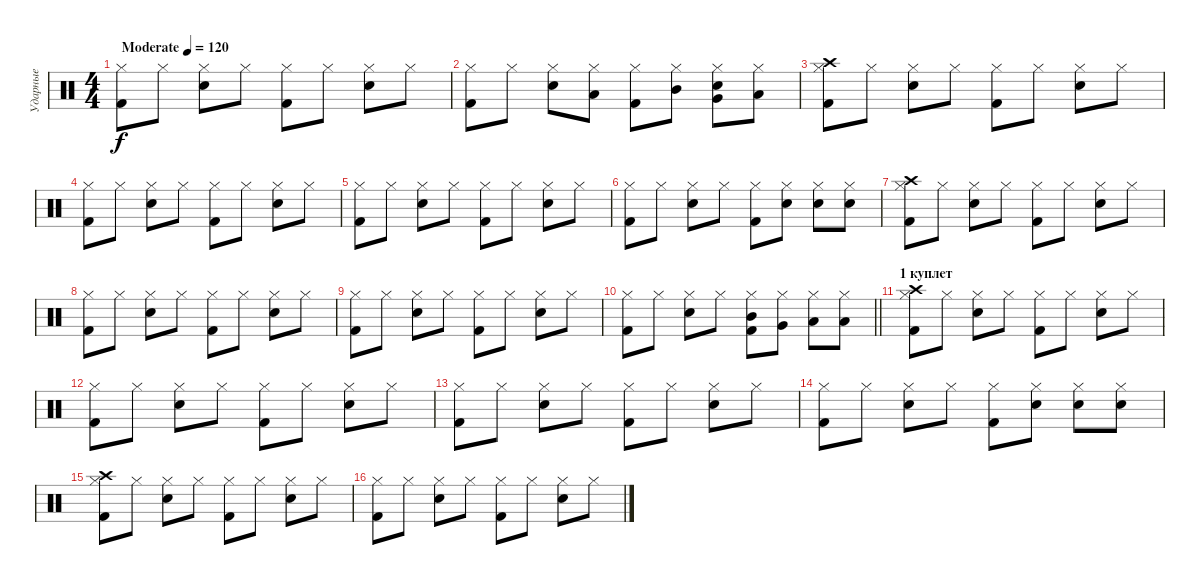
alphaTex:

\track ("Ударные" "Ударные") {instrument percussion}
\staff {score}
\articulation defaults
\ts (4 4)
\tempo (120 "Moderate")
\clef neutral
\ks c
("Hi-Hat (closed)" "Kick (hit) 2").8{dy f} "Hi-Hat (closed)".8 ("Hi-Hat (closed)" "Snare (hit) 2").8 "Hi-Hat (closed)".8 ("Hi-Hat (closed)" "Kick (hit) 2").8 "Hi-Hat (closed)".8 ("Hi-Hat (closed)" "Snare (hit) 2").8 "Hi-Hat (closed)".8 |
("Hi-Hat (closed)" "Kick (hit) 2").8 "Hi-Hat (closed)".8 ("Hi-Hat (closed)" "Snare (hit) 2").8 ("Hi-Hat (closed)" "Low Tom (hit)").8 ("Hi-Hat (closed)" "Kick (hit) 2").8 ("Hi-Hat (closed)" "Mid Tom (hit)").8 ("Hi-Hat (closed)" "Snare (hit) 2" "Very Low Tom (hit)").8 ("Hi-Hat (closed)" "Low Floor Tom (hit)").8 |
("Hi-Hat (closed)" "Kick (hit) 2" "Crash high (hit)").8 "Hi-Hat (closed)".8 ("Hi-Hat (closed)" "Snare (hit) 2").8 "Hi-Hat (closed)".8 ("Hi-Hat (closed)" "Kick (hit) 2").8 "Hi-Hat (closed)".8 ("Hi-Hat (closed)" "Snare (hit) 2").8 "Hi-Hat (closed)".8 |
("Hi-Hat (closed)" "Kick (hit) 2").8 "Hi-Hat (closed)".8 ("Hi-Hat (closed)" "Snare (hit) 2").8 "Hi-Hat (closed)".8 ("Hi-Hat (closed)" "Kick (hit) 2").8 "Hi-Hat (closed)".8 ("Hi-Hat (closed)" "Snare (hit) 2").8 "Hi-Hat (closed)".8 |
("Hi-Hat (closed)" "Kick (hit) 2").8 "Hi-Hat (closed)".8 ("Hi-Hat (closed)" "Snare (hit) 2").8 "Hi-Hat (closed)".8 ("Hi-Hat (closed)" "Kick (hit) 2").8 "Hi-Hat (closed)".8 ("Hi-Hat (closed)" "Snare (hit) 2").8 "Hi-Hat (closed)".8 |
("Hi-Hat (closed)" "Kick (hit) 2").8 "Hi-Hat (closed)".8 ("Hi-Hat (closed)" "Snare (hit) 2").8 "Hi-Hat (closed)".8 ("Hi-Hat (closed)" "Kick (hit) 2").8 ("Hi-Hat (closed)" "Snare (hit) 2").8 ("Hi-Hat (closed)" "Snare (hit) 2").8 ("Hi-Hat (closed)" "Snare (hit) 2").8 |
("Hi-Hat (closed)" "Kick (hit) 2" "Crash high (hit)").8 "Hi-Hat (closed)".8 ("Hi-Hat (closed)" "Snare (hit) 2").8 "Hi-Hat (closed)".8 ("Hi-Hat (closed)" "Kick (hit) 2").8 "Hi-Hat (closed)".8 ("Hi-Hat (closed)" "Snare (hit) 2").8 "Hi-Hat (closed)".8 |
("Hi-Hat (closed)" "Kick (hit) 2").8 "Hi-Hat (closed)".8 ("Hi-Hat (closed)" "Snare (hit) 2").8 "Hi-Hat (closed)".8 ("Hi-Hat (closed)" "Kick (hit) 2").8 "Hi-Hat (closed)".8 ("Hi-Hat (closed)" "Snare (hit) 2").8 "Hi-Hat (closed)".8 |
("Hi-Hat (closed)" "Kick (hit) 2").8 "Hi-Hat (closed)".8 ("Hi-Hat (closed)" "Snare (hit) 2").8 "Hi-Hat (closed)".8 ("Hi-Hat (closed)" "Kick (hit) 2").8 "Hi-Hat (closed)".8 ("Hi-Hat (closed)" "Snare (hit) 2").8 "Hi-Hat (closed)".8 |
\barLineRight lightlight
("Hi-Hat (closed)" "Kick (hit) 2").8 "Hi-Hat (closed)".8 ("Hi-Hat (closed)" "Snare (hit) 2").8 "Hi-Hat (closed)".8 ("Hi-Hat (closed)" "Kick (hit) 2" "Mid Tom (hit)").8 ("Hi-Hat (closed)" "Very Low Tom (hit)").8 ("Hi-Hat (closed)" "Low Floor Tom (hit)").8 ("Hi-Hat (closed)" "Low Tom (hit)").8 |
\section ("" "1 куплет")
("Hi-Hat (closed)" "Kick (hit) 2" "Crash high (hit)").8 "Hi-Hat (closed)".8 ("Hi-Hat (closed)" "Snare (hit) 2").8 "Hi-Hat (closed)".8 ("Hi-Hat (closed)" "Kick (hit) 2").8 "Hi-Hat (closed)".8 ("Hi-Hat (closed)" "Snare (hit) 2").8 "Hi-Hat (closed)".8 |
("Hi-Hat (closed)" "Kick (hit) 2").8 "Hi-Hat (closed)".8 ("Hi-Hat (closed)" "Snare (hit) 2").8 "Hi-Hat (closed)".8 ("Hi-Hat (closed)" "Kick (hit) 2").8 "Hi-Hat (closed)".8 ("Hi-Hat (closed)" "Snare (hit) 2").8 "Hi-Hat (closed)".8 |
("Hi-Hat (closed)" "Kick (hit) 2").8 "Hi-Hat (closed)".8 ("Hi-Hat (closed)" "Snare (hit) 2").8 "Hi-Hat (closed)".8 ("Hi-Hat (closed)" "Kick (hit) 2").8 "Hi-Hat (closed)".8 ("Hi-Hat (closed)" "Snare (hit) 2").8 "Hi-Hat (closed)".8 |
("Hi-Hat (closed)" "Kick (hit) 2").8 "Hi-Hat (closed)".8 ("Hi-Hat (closed)" "Snare (hit) 2").8 "Hi-Hat (closed)".8 ("Hi-Hat (closed)" "Kick (hit) 2").8 ("Hi-Hat (closed)" "Snare (hit) 2").8 ("Hi-Hat (closed)" "Snare (hit) 2").8 ("Hi-Hat (closed)" "Snare (hit) 2").8 |
("Hi-Hat (closed)" "Kick (hit) 2" "Crash high (hit)").8 "Hi-Hat (closed)".8 ("Hi-Hat (closed)" "Snare (hit) 2").8 "Hi-Hat (closed)".8 ("Hi-Hat (closed)" "Kick (hit) 2").8 "Hi-Hat (closed)".8 ("Hi-Hat (closed)" "Snare (hit) 2").8 "Hi-Hat (closed)".8 |
("Hi-Hat (closed)" "Kick (hit) 2").8 "Hi-Hat (closed)".8 ("Hi-Hat (closed)" "Snare (hit) 2").8 "Hi-Hat (closed)".8 ("Hi-Hat (closed)" "Kick (hit) 2").8 "Hi-Hat (closed)".8 ("Hi-Hat (closed)" "Snare (hit) 2").8 "Hi-Hat (closed)".8
